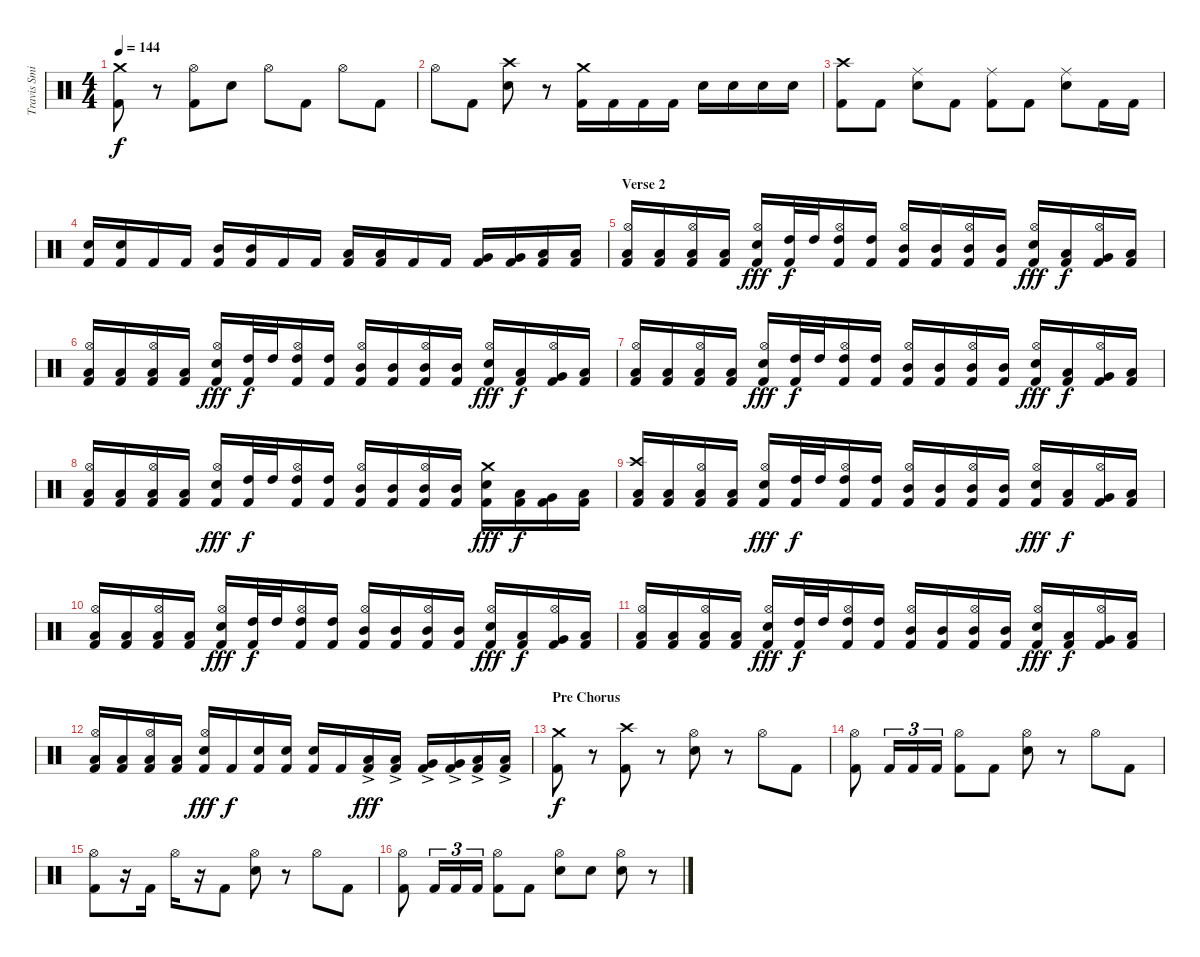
\track ("Travis Smith" "Travis Smi") {instrument percussion}
\staff {score}
\articulation defaults
\ts (4 4)
\tempo 144
\clef neutral
\ks c
("Crash medium (hit)" "Kick (hit) 2").8{dy f} r.8 ("Hi-Hat (open)" "Kick (hit) 2").8 "Electric Snare (hit)".8 "Hi-Hat (open)".8 "Kick (hit) 2".8 "Hi-Hat (open)".8 "Kick (hit) 2".8 |
"Hi-Hat (open)".8 "Kick (hit) 2".8 ("Crash high (hit)" "Electric Snare (hit)").8 r.8 ("Crash medium (hit)" "Kick (hit) 2").16 "Kick (hit) 2".16 "Kick (hit) 2".16 "Kick (hit) 2".16 "Electric Snare (hit)".16 "Electric Snare (hit)".16 "Electric Snare (hit)".16 "Electric Snare (hit)".16 |
("Crash high (hit)" "Kick (hit) 2").8 "Kick (hit) 2".8 ("Ride (middle)" "Electric Snare (hit)").8 "Kick (hit) 2".8 ("Ride (middle)" "Kick (hit) 2").8 "Kick (hit) 2".8 ("Ride (middle)" "Electric Snare (hit)").8 "Kick (hit) 2".16 "Kick (hit) 2".16 |
("Electric Snare (hit)" "Kick (hit) 2").16 ("Electric Snare (hit)" "Kick (hit) 2").16 "Kick (hit) 2".16 "Kick (hit) 2".16 ("Mid Tom (hit)" "Kick (hit) 2").16 ("Mid Tom (hit)" "Kick (hit) 2").16 "Kick (hit) 2".16 "Kick (hit) 2".16 ("Low Tom (hit)" "Kick (hit) 2").16 ("Low Tom (hit)" "Kick (hit) 2").16 "Kick (hit) 2".16 "Kick (hit) 2".16 ("Very Low Tom (hit)" "Kick (hit) 2").16 ("Very Low Tom (hit)" "Kick (hit) 2").16 ("Low Floor Tom (hit)" "Kick (hit) 2").16 ("Low Floor Tom (hit)" "Kick (hit) 2").16 |
\section ("" "Verse 2")
("Hi-Hat (open)" "Low Tom (hit)" "Kick (hit) 2").16 ("Low Tom (hit)" "Kick (hit) 2").16 ("Hi-Hat (open)" "Low Tom (hit)" "Kick (hit) 2").16 ("Low Tom (hit)" "Kick (hit) 2").16 ("Hi-Hat (open)" "Electric Snare (hit)" "Kick (hit) 2").16{dy fff} ("High Tom (hit)" "Kick (hit) 2").32{dy f} "High Tom (hit)".32 ("Hi-Hat (open)" "High Tom (hit)" "Kick (hit) 2").16 ("High Tom (hit)" "Kick (hit) 2").16 ("Hi-Hat (open)" "Mid Tom (hit)" "Kick (hit) 2").16 ("Mid Tom (hit)" "Kick (hit) 2").16 ("Hi-Hat (open)" "Mid Tom (hit)" "Kick (hit) 2").16 ("Mid Tom (hit)" "Kick (hit) 2").16 ("Hi-Hat (open)" "Electric Snare (hit)" "Kick (hit) 2").16{dy fff} ("Low Tom (hit)" "Kick (hit) 2").16{dy f} ("Hi-Hat (open)" "Very Low Tom (hit)" "Kick (hit) 2").16 ("Low Floor Tom (hit)" "Kick (hit) 2").16 |
("Hi-Hat (open)" "Low Tom (hit)" "Kick (hit) 2").16 ("Low Tom (hit)" "Kick (hit) 2").16 ("Hi-Hat (open)" "Low Tom (hit)" "Kick (hit) 2").16 ("Low Tom (hit)" "Kick (hit) 2").16 ("Hi-Hat (open)" "Electric Snare (hit)" "Kick (hit) 2").16{dy fff} ("High Tom (hit)" "Kick (hit) 2").32{dy f} "High Tom (hit)".32 ("Hi-Hat (open)" "High Tom (hit)" "Kick (hit) 2").16 ("High Tom (hit)" "Kick (hit) 2").16 ("Hi-Hat (open)" "Mid Tom (hit)" "Kick (hit) 2").16 ("Mid Tom (hit)" "Kick (hit) 2").16 ("Hi-Hat (open)" "Mid Tom (hit)" "Kick (hit) 2").16 ("Mid Tom (hit)" "Kick (hit) 2").16 ("Hi-Hat (open)" "Electric Snare (hit)" "Kick (hit) 2").16{dy fff} ("Low Tom (hit)" "Kick (hit) 2").16{dy f} ("Hi-Hat (open)" "Very Low Tom (hit)" "Kick (hit) 2").16 ("Low Floor Tom (hit)" "Kick (hit) 2").16 |
("Hi-Hat (open)" "Low Tom (hit)" "Kick (hit) 2").16 ("Low Tom (hit)" "Kick (hit) 2").16 ("Hi-Hat (open)" "Low Tom (hit)" "Kick (hit) 2").16 ("Low Tom (hit)" "Kick (hit) 2").16 ("Hi-Hat (open)" "Electric Snare (hit)" "Kick (hit) 2").16{dy fff} ("High Tom (hit)" "Kick (hit) 2").32{dy f} "High Tom (hit)".32 ("Hi-Hat (open)" "High Tom (hit)" "Kick (hit) 2").16 ("High Tom (hit)" "Kick (hit) 2").16 ("Hi-Hat (open)" "Mid Tom (hit)" "Kick (hit) 2").16 ("Mid Tom (hit)" "Kick (hit) 2").16 ("Hi-Hat (open)" "Mid Tom (hit)" "Kick (hit) 2").16 ("Mid Tom (hit)" "Kick (hit) 2").16 ("Hi-Hat (open)" "Electric Snare (hit)" "Kick (hit) 2").16{dy fff} ("Low Tom (hit)" "Kick (hit) 2").16{dy f} ("Hi-Hat (open)" "Very Low Tom (hit)" "Kick (hit) 2").16 ("Low Floor Tom (hit)" "Kick (hit) 2").16 |
("Hi-Hat (open)" "Low Tom (hit)" "Kick (hit) 2").16 ("Low Tom (hit)" "Kick (hit) 2").16 ("Hi-Hat (open)" "Low Tom (hit)" "Kick (hit) 2").16 ("Low Tom (hit)" "Kick (hit) 2").16 ("Hi-Hat (open)" "Electric Snare (hit)" "Kick (hit) 2").16{dy fff} ("High Tom (hit)" "Kick (hit) 2").32{dy f} "High Tom (hit)".32 ("Hi-Hat (open)" "High Tom (hit)" "Kick (hit) 2").16 ("High Tom (hit)" "Kick (hit) 2").16 ("Hi-Hat (open)" "Mid Tom (hit)" "Kick (hit) 2").16 ("Mid Tom (hit)" "Kick (hit) 2").16 ("Hi-Hat (open)" "Mid Tom (hit)" "Kick (hit) 2").16 ("Mid Tom (hit)" "Kick (hit) 2").16 ("Crash medium (hit)" "Electric Snare (hit)" "Kick (hit) 2").16{dy fff} ("Low Tom (hit)" "Kick (hit) 2").16{dy f} ("Very Low Tom (hit)" "Kick (hit) 2").16 ("Low Floor Tom (hit)" "Kick (hit) 2").16 |
("Crash high (hit)" "Low Tom (hit)" "Kick (hit) 2").16 ("Low Tom (hit)" "Kick (hit) 2").16 ("Hi-Hat (open)" "Low Tom (hit)" "Kick (hit) 2").16 ("Low Tom (hit)" "Kick (hit) 2").16 ("Hi-Hat (open)" "Electric Snare (hit)" "Kick (hit) 2").16{dy fff} ("High Tom (hit)" "Kick (hit) 2").32{dy f} "High Tom (hit)".32 ("Hi-Hat (open)" "High Tom (hit)" "Kick (hit) 2").16 ("High Tom (hit)" "Kick (hit) 2").16 ("Hi-Hat (open)" "Mid Tom (hit)" "Kick (hit) 2").16 ("Mid Tom (hit)" "Kick (hit) 2").16 ("Hi-Hat (open)" "Mid Tom (hit)" "Kick (hit) 2").16 ("Mid Tom (hit)" "Kick (hit) 2").16 ("Hi-Hat (open)" "Electric Snare (hit)" "Kick (hit) 2").16{dy fff} ("Low Tom (hit)" "Kick (hit) 2").16{dy f} ("Hi-Hat (open)" "Very Low Tom (hit)" "Kick (hit) 2").16 ("Low Floor Tom (hit)" "Kick (hit) 2").16 |
("Hi-Hat (open)" "Low Tom (hit)" "Kick (hit) 2").16 ("Low Tom (hit)" "Kick (hit) 2").16 ("Hi-Hat (open)" "Low Tom (hit)" "Kick (hit) 2").16 ("Low Tom (hit)" "Kick (hit) 2").16 ("Hi-Hat (open)" "Electric Snare (hit)" "Kick (hit) 2").16{dy fff} ("High Tom (hit)" "Kick (hit) 2").32{dy f} "High Tom (hit)".32 ("Hi-Hat (open)" "High Tom (hit)" "Kick (hit) 2").16 ("High Tom (hit)" "Kick (hit) 2").16 ("Hi-Hat (open)" "Mid Tom (hit)" "Kick (hit) 2").16 ("Mid Tom (hit)" "Kick (hit) 2").16 ("Hi-Hat (open)" "Mid Tom (hit)" "Kick (hit) 2").16 ("Mid Tom (hit)" "Kick (hit) 2").16 ("Hi-Hat (open)" "Electric Snare (hit)" "Kick (hit) 2").16{dy fff} ("Low Tom (hit)" "Kick (hit) 2").16{dy f} ("Hi-Hat (open)" "Very Low Tom (hit)" "Kick (hit) 2").16 ("Low Floor Tom (hit)" "Kick (hit) 2").16 |
("Hi-Hat (open)" "Low Tom (hit)" "Kick (hit) 2").16 ("Low Tom (hit)" "Kick (hit) 2").16 ("Hi-Hat (open)" "Low Tom (hit)" "Kick (hit) 2").16 ("Low Tom (hit)" "Kick (hit) 2").16 ("Hi-Hat (open)" "Electric Snare (hit)" "Kick (hit) 2").16{dy fff} ("High Tom (hit)" "Kick (hit) 2").32{dy f} "High Tom (hit)".32 ("Hi-Hat (open)" "High Tom (hit)" "Kick (hit) 2").16 ("High Tom (hit)" "Kick (hit) 2").16 ("Hi-Hat (open)" "Mid Tom (hit)" "Kick (hit) 2").16 ("Mid Tom (hit)" "Kick (hit) 2").16 ("Hi-Hat (open)" "Mid Tom (hit)" "Kick (hit) 2").16 ("Mid Tom (hit)" "Kick (hit) 2").16 ("Hi-Hat (open)" "Electric Snare (hit)" "Kick (hit) 2").16{dy fff} ("Low Tom (hit)" "Kick (hit) 2").16{dy f} ("Hi-Hat (open)" "Very Low Tom (hit)" "Kick (hit) 2").16 ("Low Floor Tom (hit)" "Kick (hit) 2").16 |
("Hi-Hat (open)" "Low Tom (hit)" "Kick (hit) 2").16 ("Low Tom (hit)" "Kick (hit) 2").16 ("Hi-Hat (open)" "Low Tom (hit)" "Kick (hit) 2").16 ("Low Tom (hit)" "Kick (hit) 2").16 ("Hi-Hat (open)" "Electric Snare (hit)" "Kick (hit) 2").16{dy fff} "Kick (hit) 2".16{dy f} ("Electric Snare (hit)" "Kick (hit) 2").16 ("Electric Snare (hit)" "Kick (hit) 2").16 ("Electric Snare (hit)" "Kick (hit) 2").16 "Kick (hit) 2".16 ("Low Tom (hit)"{ac} "Kick (hit) 2").16{dy fff} ("Low Tom (hit)"{ac} "Kick (hit) 2").16 ("Very Low Tom (hit)"{ac} "Kick (hit) 2").16 ("Very Low Tom (hit)"{ac} "Kick (hit) 2").16 ("Low Floor Tom (hit)"{ac} "Kick (hit) 2").16 ("Low Floor Tom (hit)"{ac} "Kick (hit) 2").16 |
\section ("" "Pre Chorus")
("Crash medium (hit)" "Kick (hit) 2").8{dy f} r.8 ("Crash high (hit)" "Kick (hit) 2").8 r.8 ("Hi-Hat (open)" "Electric Snare (hit)").8 r.8 "Hi-Hat (open)".8 "Kick (hit) 2".8 |
("Hi-Hat (open)" "Kick (hit) 2").8 "Kick (hit) 2".16{tu (3 2)} "Kick (hit) 2".16{tu (3 2)} "Kick (hit) 2".16{tu (3 2)} ("Hi-Hat (open)" "Kick (hit) 2").8 "Kick (hit) 2".8 ("Hi-Hat (open)" "Electric Snare (hit)").8 r.8 "Hi-Hat (open)".8 "Kick (hit) 2".8 |
("Hi-Hat (open)" "Kick (hit) 2").8 r.16 "Kick (hit) 2".16 "Hi-Hat (open)".16 r.16 "Kick (hit) 2".8 ("Hi-Hat (open)" "Electric Snare (hit)").8 r.8 "Hi-Hat (open)".8 "Kick (hit) 2".8 |
("Hi-Hat (open)" "Kick (hit) 2").8 "Kick (hit) 2".16{tu (3 2)} "Kick (hit) 2".16{tu (3 2)} "Kick (hit) 2".16{tu (3 2)} ("Hi-Hat (open)" "Kick (hit) 2").8 "Kick (hit) 2".8 ("Hi-Hat (open)" "Electric Snare (hit)").8 "Electric Snare (hit)".8 ("Hi-Hat (open)" "Electric Snare (hit)").8 r.8
